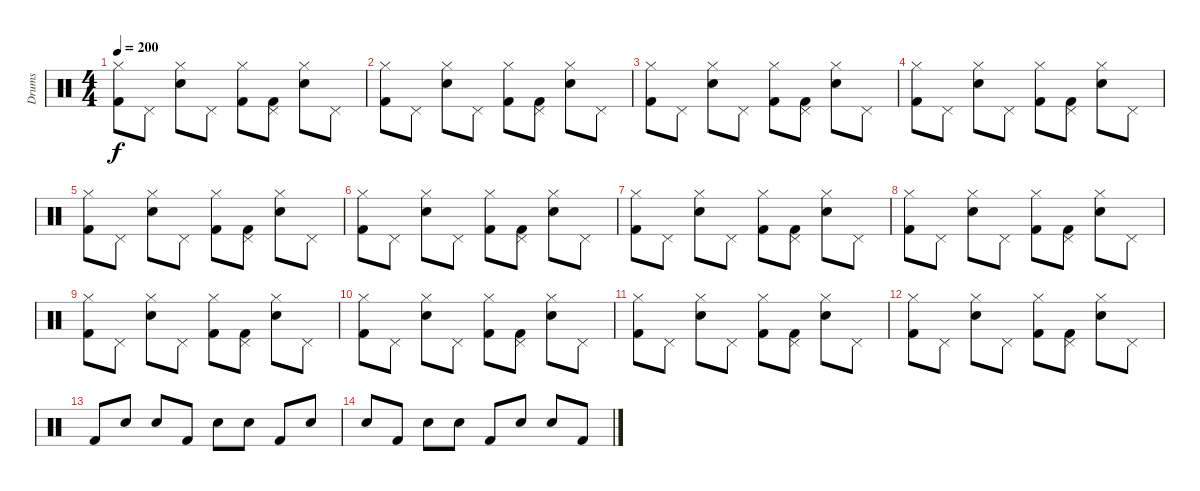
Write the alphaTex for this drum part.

\track ("Drums" "Drums") {instrument percussion}
\staff {score}
\articulation defaults
\ts (4 4)
\tempo 200
\clef neutral
\ks c
("Hi-Hat (closed)" "Kick (hit) 2").8{dy f} "Pedal Hi-Hat (hit)".8 ("Hi-Hat (closed)" "Snare (hit) 2").8 "Pedal Hi-Hat (hit)".8 ("Hi-Hat (closed)" "Kick (hit) 2").8 ("Pedal Hi-Hat (hit)" "Kick (hit) 2").8 ("Hi-Hat (closed)" "Snare (hit) 2").8 "Pedal Hi-Hat (hit)".8 |
("Hi-Hat (closed)" "Kick (hit) 2").8 "Pedal Hi-Hat (hit)".8 ("Hi-Hat (closed)" "Snare (hit) 2").8 "Pedal Hi-Hat (hit)".8 ("Hi-Hat (closed)" "Kick (hit) 2").8 ("Pedal Hi-Hat (hit)" "Kick (hit) 2").8 ("Hi-Hat (closed)" "Snare (hit) 2").8 "Pedal Hi-Hat (hit)".8 |
("Hi-Hat (closed)" "Kick (hit) 2").8 "Pedal Hi-Hat (hit)".8 ("Hi-Hat (closed)" "Snare (hit) 2").8 "Pedal Hi-Hat (hit)".8 ("Hi-Hat (closed)" "Kick (hit) 2").8 ("Pedal Hi-Hat (hit)" "Kick (hit) 2").8 ("Hi-Hat (closed)" "Snare (hit) 2").8 "Pedal Hi-Hat (hit)".8 |
("Hi-Hat (closed)" "Kick (hit) 2").8 "Pedal Hi-Hat (hit)".8 ("Hi-Hat (closed)" "Snare (hit) 2").8 "Pedal Hi-Hat (hit)".8 ("Hi-Hat (closed)" "Kick (hit) 2").8 ("Pedal Hi-Hat (hit)" "Kick (hit) 2").8 ("Hi-Hat (closed)" "Snare (hit) 2").8 "Pedal Hi-Hat (hit)".8 |
("Hi-Hat (closed)" "Kick (hit) 2").8 "Pedal Hi-Hat (hit)".8 ("Hi-Hat (closed)" "Snare (hit) 2").8 "Pedal Hi-Hat (hit)".8 ("Hi-Hat (closed)" "Kick (hit) 2").8 ("Pedal Hi-Hat (hit)" "Kick (hit) 2").8 ("Hi-Hat (closed)" "Snare (hit) 2").8 "Pedal Hi-Hat (hit)".8 |
("Hi-Hat (closed)" "Kick (hit) 2").8 "Pedal Hi-Hat (hit)".8 ("Hi-Hat (closed)" "Snare (hit) 2").8 "Pedal Hi-Hat (hit)".8 ("Hi-Hat (closed)" "Kick (hit) 2").8 ("Pedal Hi-Hat (hit)" "Kick (hit) 2").8 ("Hi-Hat (closed)" "Snare (hit) 2").8 "Pedal Hi-Hat (hit)".8 |
("Hi-Hat (closed)" "Kick (hit) 2").8 "Pedal Hi-Hat (hit)".8 ("Hi-Hat (closed)" "Snare (hit) 2").8 "Pedal Hi-Hat (hit)".8 ("Hi-Hat (closed)" "Kick (hit) 2").8 ("Pedal Hi-Hat (hit)" "Kick (hit) 2").8 ("Hi-Hat (closed)" "Snare (hit) 2").8 "Pedal Hi-Hat (hit)".8 |
("Hi-Hat (closed)" "Kick (hit) 2").8 "Pedal Hi-Hat (hit)".8 ("Hi-Hat (closed)" "Snare (hit) 2").8 "Pedal Hi-Hat (hit)".8 ("Hi-Hat (closed)" "Kick (hit) 2").8 ("Pedal Hi-Hat (hit)" "Kick (hit) 2").8 ("Hi-Hat (closed)" "Snare (hit) 2").8 "Pedal Hi-Hat (hit)".8 |
("Hi-Hat (closed)" "Kick (hit) 2").8 "Pedal Hi-Hat (hit)".8 ("Hi-Hat (closed)" "Snare (hit) 2").8 "Pedal Hi-Hat (hit)".8 ("Hi-Hat (closed)" "Kick (hit) 2").8 ("Pedal Hi-Hat (hit)" "Kick (hit) 2").8 ("Hi-Hat (closed)" "Snare (hit) 2").8 "Pedal Hi-Hat (hit)".8 |
("Hi-Hat (closed)" "Kick (hit) 2").8 "Pedal Hi-Hat (hit)".8 ("Hi-Hat (closed)" "Snare (hit) 2").8 "Pedal Hi-Hat (hit)".8 ("Hi-Hat (closed)" "Kick (hit) 2").8 ("Pedal Hi-Hat (hit)" "Kick (hit) 2").8 ("Hi-Hat (closed)" "Snare (hit) 2").8 "Pedal Hi-Hat (hit)".8 |
("Hi-Hat (closed)" "Kick (hit) 2").8 "Pedal Hi-Hat (hit)".8 ("Hi-Hat (closed)" "Snare (hit) 2").8 "Pedal Hi-Hat (hit)".8 ("Hi-Hat (closed)" "Kick (hit) 2").8 ("Pedal Hi-Hat (hit)" "Kick (hit) 2").8 ("Hi-Hat (closed)" "Snare (hit) 2").8 "Pedal Hi-Hat (hit)".8 |
("Hi-Hat (closed)" "Kick (hit) 2").8 "Pedal Hi-Hat (hit)".8 ("Hi-Hat (closed)" "Snare (hit) 2").8 "Pedal Hi-Hat (hit)".8 ("Hi-Hat (closed)" "Kick (hit) 2").8 ("Pedal Hi-Hat (hit)" "Kick (hit) 2").8 ("Hi-Hat (closed)" "Snare (hit) 2").8 "Pedal Hi-Hat (hit)".8 |
"Kick (hit) 2".8 "Snare (hit) 2".8 "Snare (hit) 2".8 "Kick (hit) 2".8 "Snare (hit) 2".8 "Snare (hit) 2".8 "Kick (hit) 2".8 "Snare (hit) 2".8 |
"Snare (hit) 2".8 "Kick (hit) 2".8 "Snare (hit) 2".8 "Snare (hit) 2".8 "Kick (hit) 2".8 "Snare (hit) 2".8 "Snare (hit) 2".8 "Kick (hit) 2".8
